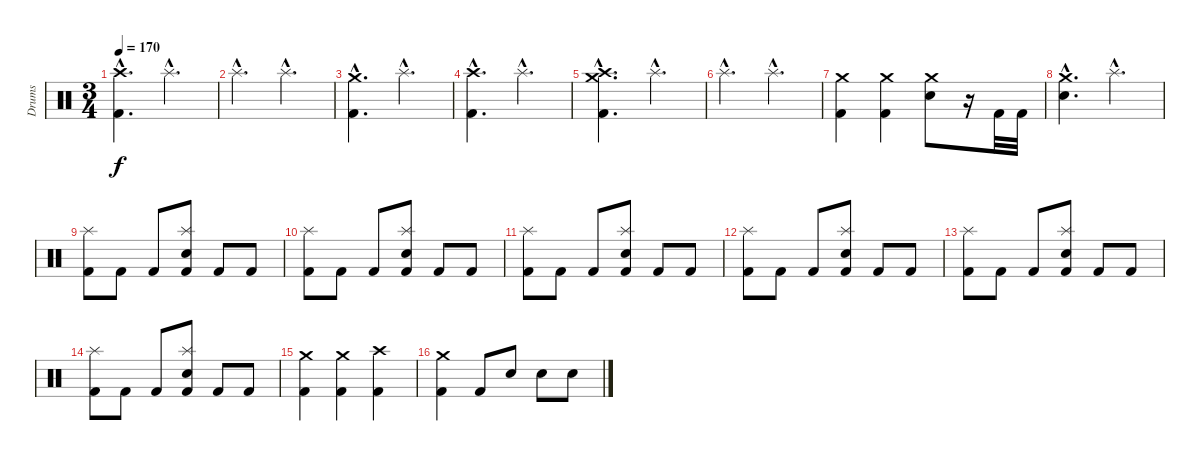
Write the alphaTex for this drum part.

\track ("Drums" "Drums") {instrument percussion}
\staff {score}
\articulation defaults
\ts (3 4)
\tempo 170
\clef neutral
\ks c
("Crash high (hit)"{hac} "Kick (hit) 2"{hac}).4{d dy f} "Splash (hit)"{hac}.4{d} |
"Splash (hit)"{hac}.4{d} "Splash (hit)"{hac}.4{d} |
("Crash medium (hit)"{hac} "Kick (hit) 2"{hac}).4{d} "Splash (hit)"{hac}.4{d} |
("Crash high (hit)"{hac} "Kick (hit) 2"{hac}).4{d} "Splash (hit)"{hac}.4{d} |
("Crash high (hit)"{hac} "Crash medium (hit)"{hac} "Kick (hit) 2"{hac}).4{d} "Splash (hit)"{hac}.4{d} |
"Splash (hit)"{hac}.4{d} "Splash (hit)"{hac}.4{d} |
("Crash medium (hit)" "Kick (hit) 2").4 ("Crash medium (hit)" "Kick (hit) 2").4 ("Crash medium (hit)" "Electric Snare (hit)").8 r.16 "Kick (hit) 2".32 "Kick (hit) 2".32 |
("Crash medium (hit)"{hac} "Electric Snare (hit)"{hac}).4{d} "Splash (hit)"{hac}.4{d} |
("Splash (hit)" "Kick (hit) 2").8 "Kick (hit) 2".8 "Kick (hit) 2".8 ("Splash (hit)" "Electric Snare (hit)" "Kick (hit) 2").8 "Kick (hit) 2".8 "Kick (hit) 2".8 |
("Splash (hit)" "Kick (hit) 2").8 "Kick (hit) 2".8 "Kick (hit) 2".8 ("Splash (hit)" "Electric Snare (hit)" "Kick (hit) 2").8 "Kick (hit) 2".8 "Kick (hit) 2".8 |
("Splash (hit)" "Kick (hit) 2").8 "Kick (hit) 2".8 "Kick (hit) 2".8 ("Splash (hit)" "Electric Snare (hit)" "Kick (hit) 2").8 "Kick (hit) 2".8 "Kick (hit) 2".8 |
("Splash (hit)" "Kick (hit) 2").8 "Kick (hit) 2".8 "Kick (hit) 2".8 ("Splash (hit)" "Electric Snare (hit)" "Kick (hit) 2").8 "Kick (hit) 2".8 "Kick (hit) 2".8 |
("Splash (hit)" "Kick (hit) 2").8 "Kick (hit) 2".8 "Kick (hit) 2".8 ("Splash (hit)" "Electric Snare (hit)" "Kick (hit) 2").8 "Kick (hit) 2".8 "Kick (hit) 2".8 |
("Splash (hit)" "Kick (hit) 2").8 "Kick (hit) 2".8 "Kick (hit) 2".8 ("Splash (hit)" "Electric Snare (hit)" "Kick (hit) 2").8 "Kick (hit) 2".8 "Kick (hit) 2".8 |
("Crash medium (hit)" "Kick (hit) 2").4 ("Crash medium (hit)" "Kick (hit) 2").4 ("Crash high (hit)" "Kick (hit) 2").4 |
("Crash medium (hit)" "Kick (hit) 2").4 "Kick (hit) 2".8 "Electric Snare (hit)".8 "Electric Snare (hit)".8 "Electric Snare (hit)".8
